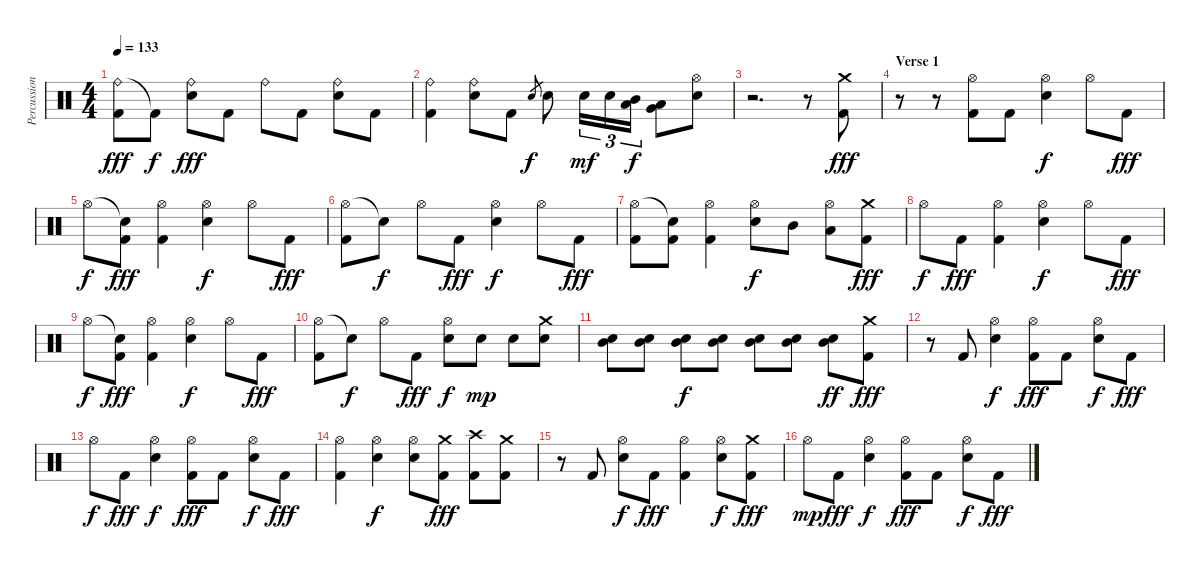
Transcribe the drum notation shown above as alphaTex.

\track ("Percussion" "Percussion") {instrument percussion}
\staff {score}
\articulation defaults
\ts (4 4)
\tempo 133
\clef neutral
\ks c
("Ride (bell)" "Kick (hit) 2").8{dy fff} "Kick (hit) 2"{t}.8{dy f} ("Ride (bell)" "Electric Snare (hit)").8{dy fff} "Kick (hit) 2".8 "Ride (bell)".8 "Kick (hit) 2".8 ("Ride (bell)" "Electric Snare (hit)").8 "Kick (hit) 2".8 |
("Ride (bell)" "Kick (hit) 2").4 ("Ride (bell)" "Electric Snare (hit)").8 "Kick (hit) 2".8 "Electric Snare (hit)".8{gr dy f} "Electric Snare (hit)".8 "Electric Snare (hit)".16{tu (3 2) dy mf} "Electric Snare (hit)".16{tu (3 2)} ("Mid Tom (hit)" "Low Tom (hit)").16{tu (3 2) dy f} ("Very Low Tom (hit)" "Low Tom (hit)").8 ("Hi-Hat (open)" "Electric Snare (hit)").8 |
r.2{d} r.8 ("Crash medium (hit)" "Kick (hit) 2").8{dy fff} |
\section ("" "Verse 1")
r.8 r.8 ("Hi-Hat (open)" "Kick (hit) 2").8 "Kick (hit) 2".8 ("Hi-Hat (open)" "Electric Snare (hit)").4{dy f} "Hi-Hat (open)".8 "Kick (hit) 2".8{dy fff} |
"Hi-Hat (open)".8{dy f} ("Snare (hit)"{t} "Kick (hit) 2").8{dy fff} ("Hi-Hat (open)" "Kick (hit) 2").4 ("Hi-Hat (open)" "Electric Snare (hit)").4{dy f} "Hi-Hat (open)".8 "Kick (hit) 2".8{dy fff} |
("Hi-Hat (open)" "Kick (hit) 2").8 "Snare (hit)"{t}.8{dy f} "Hi-Hat (open)".8 "Kick (hit) 2".8{dy fff} ("Hi-Hat (open)" "Electric Snare (hit)").4{dy f} "Hi-Hat (open)".8 "Kick (hit) 2".8{dy fff} |
("Hi-Hat (open)" "Kick (hit) 2").8 ("Snare (hit)"{t} "Kick (hit) 2").8 ("Hi-Hat (open)" "Kick (hit) 2").4 ("Hi-Hat (open)" "Electric Snare (hit)").8{dy f} "Mid Tom (hit)".8 ("Hi-Hat (open)" "Low Tom (hit)").8 ("Crash medium (hit)" "Kick (hit) 2").8{dy fff} |
"Hi-Hat (open)".8{dy f} "Kick (hit) 2".8{dy fff} ("Hi-Hat (open)" "Kick (hit) 2").4 ("Hi-Hat (open)" "Electric Snare (hit)").4{dy f} "Hi-Hat (open)".8 "Kick (hit) 2".8{dy fff} |
"Hi-Hat (open)".8{dy f} ("Snare (hit)"{t} "Kick (hit) 2").8{dy fff} ("Hi-Hat (open)" "Kick (hit) 2").4 ("Hi-Hat (open)" "Electric Snare (hit)").4{dy f} "Hi-Hat (open)".8 "Kick (hit) 2".8{dy fff} |
("Hi-Hat (open)" "Kick (hit) 2").8 "Snare (hit)"{t}.8{dy f} "Hi-Hat (open)".8 "Kick (hit) 2".8{dy fff} ("Hi-Hat (open)" "Electric Snare (hit)").8{dy f} "Electric Snare (hit)".8{dy mp} "Electric Snare (hit)".8 ("Crash medium (hit)" "Electric Snare (hit)").8 |
("Electric Snare (hit)" "Mid Tom (hit)").8 ("Electric Snare (hit)" "Mid Tom (hit)").8 ("Electric Snare (hit)" "Mid Tom (hit)").8{dy f} ("Electric Snare (hit)" "Mid Tom (hit)").8 ("Electric Snare (hit)" "Mid Tom (hit)").8 ("Electric Snare (hit)" "Mid Tom (hit)").8 ("Electric Snare (hit)" "Mid Tom (hit)").8{dy ff} ("Crash medium (hit)" "Kick (hit) 2").8{dy fff} |
r.8 "Kick (hit) 2".8 ("Hi-Hat (open)" "Electric Snare (hit)").4{dy f} ("Hi-Hat (open)" "Kick (hit) 2").8{dy fff} "Kick (hit) 2".8 ("Hi-Hat (open)" "Electric Snare (hit)").8{dy f} "Kick (hit) 2".8{dy fff} |
"Hi-Hat (open)".8{dy f} "Kick (hit) 2".8{dy fff} ("Hi-Hat (open)" "Electric Snare (hit)").4{dy f} ("Hi-Hat (open)" "Kick (hit) 2").8{dy fff} "Kick (hit) 2".8 ("Hi-Hat (open)" "Electric Snare (hit)").8{dy f} "Kick (hit) 2".8{dy fff} |
("Hi-Hat (open)" "Kick (hit) 2").4 ("Hi-Hat (open)" "Electric Snare (hit)").4{dy f} ("Hi-Hat (open)" "Electric Snare (hit)").8 ("Crash medium (hit)" "Kick (hit) 2").8{dy fff} ("Crash high (hit)" "Kick (hit) 2").8 ("Crash medium (hit)" "Kick (hit) 2").8 |
r.8 "Kick (hit) 2".8 ("Hi-Hat (open)" "Electric Snare (hit)").8{dy f} "Kick (hit) 2".8{dy fff} ("Hi-Hat (open)" "Kick (hit) 2").4 ("Hi-Hat (open)" "Electric Snare (hit)").8{dy f} ("Crash medium (hit)" "Kick (hit) 2").8{dy fff} |
"Hi-Hat (open)".8{dy mp} "Kick (hit) 2".8{dy fff} ("Hi-Hat (open)" "Electric Snare (hit)").4{dy f} ("Hi-Hat (open)" "Kick (hit) 2").8{dy fff} "Kick (hit) 2".8 ("Hi-Hat (open)" "Electric Snare (hit)").8{dy f} "Kick (hit) 2".8{dy fff}
